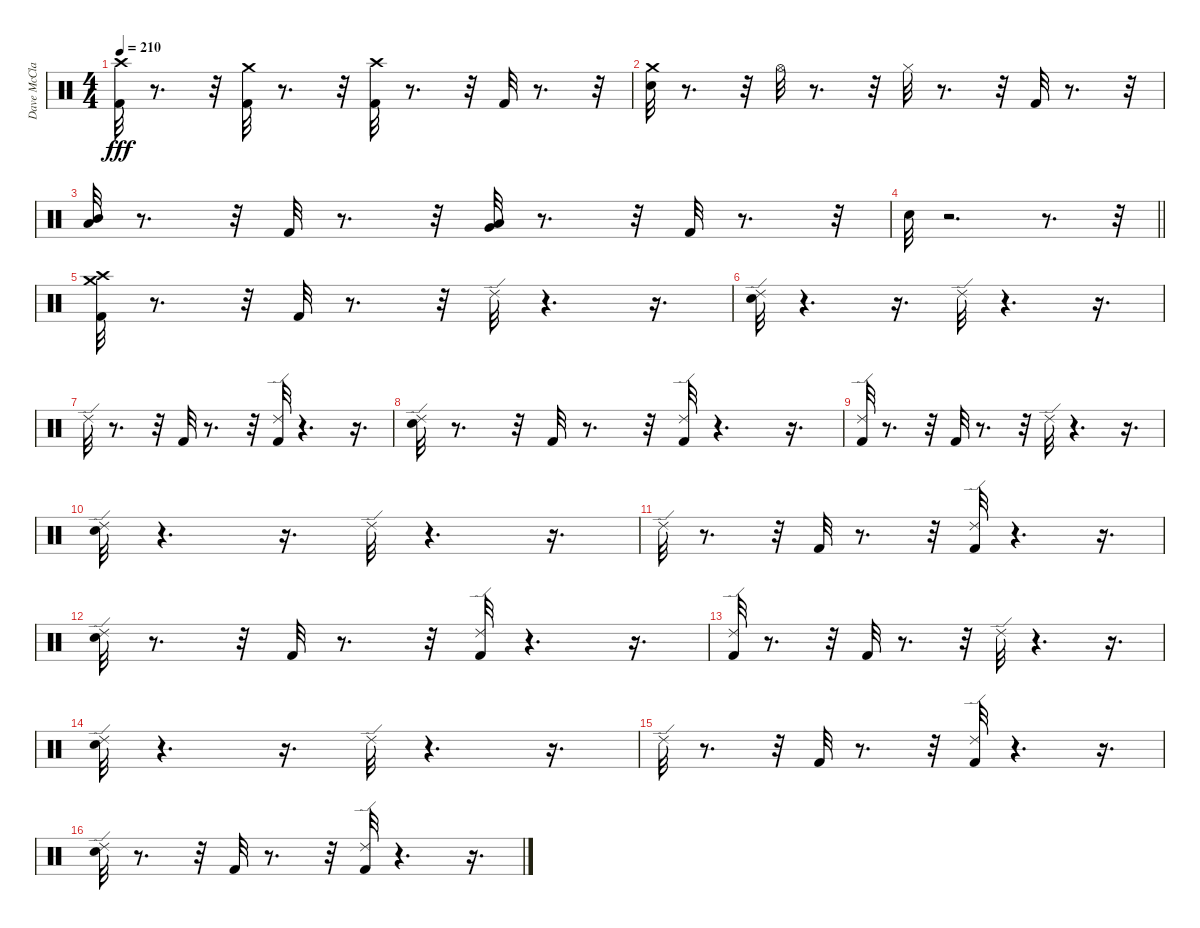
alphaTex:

\track ("Dave McClain" "Dave McCla") {instrument percussion}
\staff {score}
\articulation defaults
\ts (4 4)
\tempo 210
\clef neutral
\ks c
("Crash high (hit)" "Kick (hit) 2").32{dy fff} r.8{d} r.32 ("Crash medium (hit)" "Kick (hit) 2").32 r.8{d} r.32 ("Kick (hit) 2" "Crash high (hit)").32 r.8{d} r.32 "Kick (hit) 2".32 r.8{d} r.32 |
("Crash medium (hit)" "Snare (hit) 2").32 r.8{d} r.32 "Hi-Hat (open)".32 r.8{d} r.32 "Hi-Hat (closed)".32 r.8{d} r.32 "Kick (hit) 2".32 r.8{d} r.32 |
("Mid Tom (hit)" "Low Tom (hit)").32 r.8{d} r.32 "Kick (hit) 2".32 r.8{d} r.32 ("Low Tom (hit)" "Very Low Tom (hit)").32 r.8{d} r.32 "Kick (hit) 2".32 r.8{d} r.32 |
\barLineRight lightlight "Snare (hit) 2".32
r.2{d} r.8{d} r.32 |
("Crash medium (hit)" "Crash high (hit)" "Kick (hit) 2").32 r.8{d} r.32 "Kick (hit) 2".32 r.8{d} r.32 "Ride (edge) 2".32 r.4{d} r.16{d} |
("Ride (edge) 2" "Snare (hit) 2").32 r.4{d} r.16{d} "Ride (edge) 2".32 r.4{d} r.16{d} |
"Ride (edge) 2".32 r.8{d} r.32 "Kick (hit) 2".32 r.8{d} r.32 ("Kick (hit) 2" "Ride (edge) 2").32 r.4{d} r.16{d} |
("Snare (hit) 2" "Ride (edge) 2").32 r.8{d} r.32 "Kick (hit) 2".32 r.8{d} r.32 ("Kick (hit) 2" "Ride (edge) 2").32 r.4{d} r.16{d} |
("Ride (edge) 2" "Kick (hit) 2").32 r.8{d} r.32 "Kick (hit) 2".32 r.8{d} r.32 "Ride (edge) 2".32 r.4{d} r.16{d} |
("Ride (edge) 2" "Snare (hit) 2").32 r.4{d} r.16{d} "Ride (edge) 2".32 r.4{d} r.16{d} |
"Ride (edge) 2".32 r.8{d} r.32 "Kick (hit) 2".32 r.8{d} r.32 ("Kick (hit) 2" "Ride (edge) 2").32 r.4{d} r.16{d} |
("Snare (hit) 2" "Ride (edge) 2").32 r.8{d} r.32 "Kick (hit) 2".32 r.8{d} r.32 ("Kick (hit) 2" "Ride (edge) 2").32 r.4{d} r.16{d} |
("Ride (edge) 2" "Kick (hit) 2").32 r.8{d} r.32 "Kick (hit) 2".32 r.8{d} r.32 "Ride (edge) 2".32 r.4{d} r.16{d} |
("Ride (edge) 2" "Snare (hit) 2").32 r.4{d} r.16{d} "Ride (edge) 2".32 r.4{d} r.16{d} |
"Ride (edge) 2".32 r.8{d} r.32 "Kick (hit) 2".32 r.8{d} r.32 ("Kick (hit) 2" "Ride (edge) 2").32 r.4{d} r.16{d} |
("Snare (hit) 2" "Ride (edge) 2").32 r.8{d} r.32 "Kick (hit) 2".32 r.8{d} r.32 ("Kick (hit) 2" "Ride (edge) 2").32 r.4{d} r.16{d}
